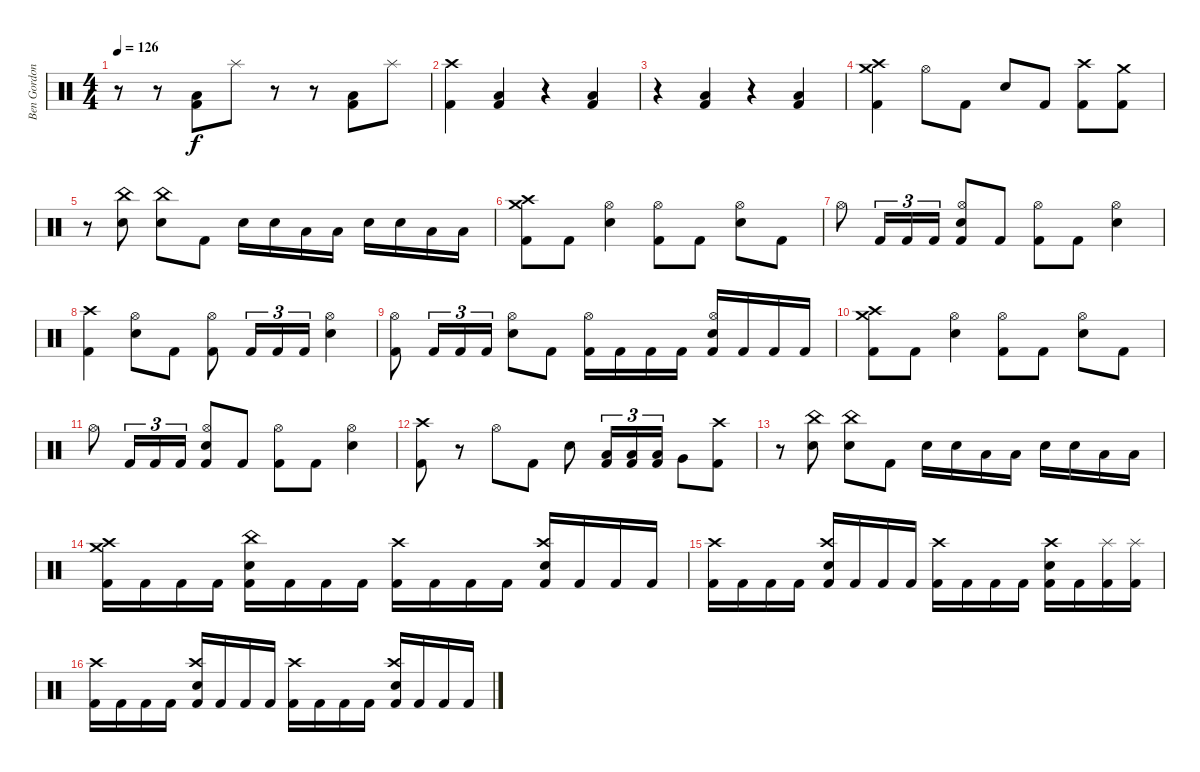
\track ("Ben Gordon" "Ben Gordon") {instrument percussion}
\staff {score}
\articulation defaults
\ts (4 4)
\tempo 126
\clef neutral
\ks c
r.8{dy f} r.8 ("Low Floor Tom (hit)" "Kick (hit) 2").8 "Splash (hit)".8 r.8 r.8 ("Low Floor Tom (hit)" "Kick (hit) 2").8 "Splash (hit)".8 |
("Crash high (hit)" "Kick (hit) 2").4 ("Low Floor Tom (hit)" "Kick (hit) 2").4 r.4 ("Low Floor Tom (hit)" "Kick (hit) 2").4 |
r.4 ("Low Floor Tom (hit)" "Kick (hit) 2").4 r.4 ("Low Floor Tom (hit)" "Kick (hit) 2").4 |
("Crash medium (hit)" "Crash high (hit)" "Kick (hit) 2").4 "Hi-Hat (open)".8 "Kick (hit) 2".8 "Electric Snare (hit)".8 "Kick (hit) 2".8 ("Crash high (hit)" "Kick (hit) 2").8 ("Crash medium (hit)" "Kick (hit) 2").8 |
r.8 ("China (hit)" "Electric Snare (hit)").8 ("China (hit)" "Electric Snare (hit)").8 "Kick (hit) 2".8 "Electric Snare (hit)".16 "Electric Snare (hit)".16 "Low Tom (hit)".16 "Low Tom (hit)".16 "Electric Snare (hit)".16 "Electric Snare (hit)".16 "Low Tom (hit)".16 "Low Tom (hit)".16 |
("Crash medium (hit)" "Crash high (hit)" "Kick (hit) 2").8 "Kick (hit) 2".8 ("Hi-Hat (open)" "Electric Snare (hit)").4 ("Hi-Hat (open)" "Kick (hit) 2").8 "Kick (hit) 2".8 ("Hi-Hat (open)" "Electric Snare (hit)").8 "Kick (hit) 2".8 |
"Hi-Hat (open)".8 "Kick (hit) 2".16{tu (3 2)} "Kick (hit) 2".16{tu (3 2)} "Kick (hit) 2".16{tu (3 2)} ("Hi-Hat (open)" "Electric Snare (hit)" "Kick (hit) 2").8 "Kick (hit) 2".8 ("Hi-Hat (open)" "Kick (hit) 2").8 "Kick (hit) 2".8 ("Hi-Hat (open)" "Electric Snare (hit)").4 |
("Crash high (hit)" "Kick (hit) 2").4 ("Hi-Hat (open)" "Electric Snare (hit)").8 "Kick (hit) 2".8 ("Hi-Hat (open)" "Kick (hit) 2").8 "Kick (hit) 2".16{tu (3 2)} "Kick (hit) 2".16{tu (3 2)} "Kick (hit) 2".16{tu (3 2)} ("Hi-Hat (open)" "Electric Snare (hit)").4 |
("Hi-Hat (open)" "Kick (hit) 2").8 "Kick (hit) 2".16{tu (3 2)} "Kick (hit) 2".16{tu (3 2)} "Kick (hit) 2".16{tu (3 2)} ("Hi-Hat (open)" "Electric Snare (hit)").8 "Kick (hit) 2".8 ("Hi-Hat (open)" "Kick (hit) 2").16 "Kick (hit) 2".16 "Kick (hit) 2".16 "Kick (hit) 2".16 ("Hi-Hat (open)" "Electric Snare (hit)" "Kick (hit) 2").16 "Kick (hit) 2".16 "Kick (hit) 2".16 "Kick (hit) 2".16 |
("Crash medium (hit)" "Crash high (hit)" "Kick (hit) 2").8 "Kick (hit) 2".8 ("Hi-Hat (open)" "Electric Snare (hit)").4 ("Hi-Hat (open)" "Kick (hit) 2").8 "Kick (hit) 2".8 ("Hi-Hat (open)" "Electric Snare (hit)").8 "Kick (hit) 2".8 |
"Hi-Hat (open)".8 "Kick (hit) 2".16{tu (3 2)} "Kick (hit) 2".16{tu (3 2)} "Kick (hit) 2".16{tu (3 2)} ("Hi-Hat (open)" "Electric Snare (hit)" "Kick (hit) 2").8 "Kick (hit) 2".8 ("Hi-Hat (open)" "Kick (hit) 2").8 "Kick (hit) 2".8 ("Hi-Hat (open)" "Electric Snare (hit)").4 |
("Crash high (hit)" "Kick (hit) 2").8 r.8 "Hi-Hat (open)".8 "Kick (hit) 2".8 "Electric Snare (hit)".8 ("Low Tom (hit)" "Kick (hit) 2").16{tu (3 2)} ("Low Tom (hit)" "Kick (hit) 2").16{tu (3 2)} ("Low Tom (hit)" "Kick (hit) 2").16{tu (3 2)} "Very Low Tom (hit)".8 ("Crash high (hit)" "Kick (hit) 2").8 |
r.8 ("China (hit)" "Electric Snare (hit)").8 ("China (hit)" "Electric Snare (hit)").8 "Kick (hit) 2".8 "Electric Snare (hit)".16 "Electric Snare (hit)".16 "Low Tom (hit)".16 "Low Tom (hit)".16 "Electric Snare (hit)".16 "Electric Snare (hit)".16 "Low Tom (hit)".16 "Low Tom (hit)".16 |
("Crash medium (hit)" "Crash high (hit)" "Kick (hit) 2").16 "Kick (hit) 2".16 "Kick (hit) 2".16 "Kick (hit) 2".16 ("China (hit)" "Electric Snare (hit)" "Kick (hit) 2").16 "Kick (hit) 2".16 "Kick (hit) 2".16 "Kick (hit) 2".16 ("Crash high (hit)" "Kick (hit) 2").16 "Kick (hit) 2".16 "Kick (hit) 2".16 "Kick (hit) 2".16 ("Crash high (hit)" "Electric Snare (hit)" "Kick (hit) 2").16 "Kick (hit) 2".16 "Kick (hit) 2".16 "Kick (hit) 2".16 |
("Crash high (hit)" "Kick (hit) 2").16 "Kick (hit) 2".16 "Kick (hit) 2".16 "Kick (hit) 2".16 ("Crash high (hit)" "Electric Snare (hit)" "Kick (hit) 2").16 "Kick (hit) 2".16 "Kick (hit) 2".16 "Kick (hit) 2".16 ("Crash high (hit)" "Kick (hit) 2").16 "Kick (hit) 2".16 "Kick (hit) 2".16 "Kick (hit) 2".16 ("Crash high (hit)" "Electric Snare (hit)" "Kick (hit) 2").16 "Kick (hit) 2".16 ("Splash (hit)" "Kick (hit) 2").16 ("Splash (hit)" "Kick (hit) 2").16 |
("Crash high (hit)" "Kick (hit) 2").16 "Kick (hit) 2".16 "Kick (hit) 2".16 "Kick (hit) 2".16 ("Crash high (hit)" "Electric Snare (hit)" "Kick (hit) 2").16 "Kick (hit) 2".16 "Kick (hit) 2".16 "Kick (hit) 2".16 ("Crash high (hit)" "Kick (hit) 2").16 "Kick (hit) 2".16 "Kick (hit) 2".16 "Kick (hit) 2".16 ("Crash high (hit)" "Electric Snare (hit)" "Kick (hit) 2").16 "Kick (hit) 2".16 "Kick (hit) 2".16 "Kick (hit) 2".16
